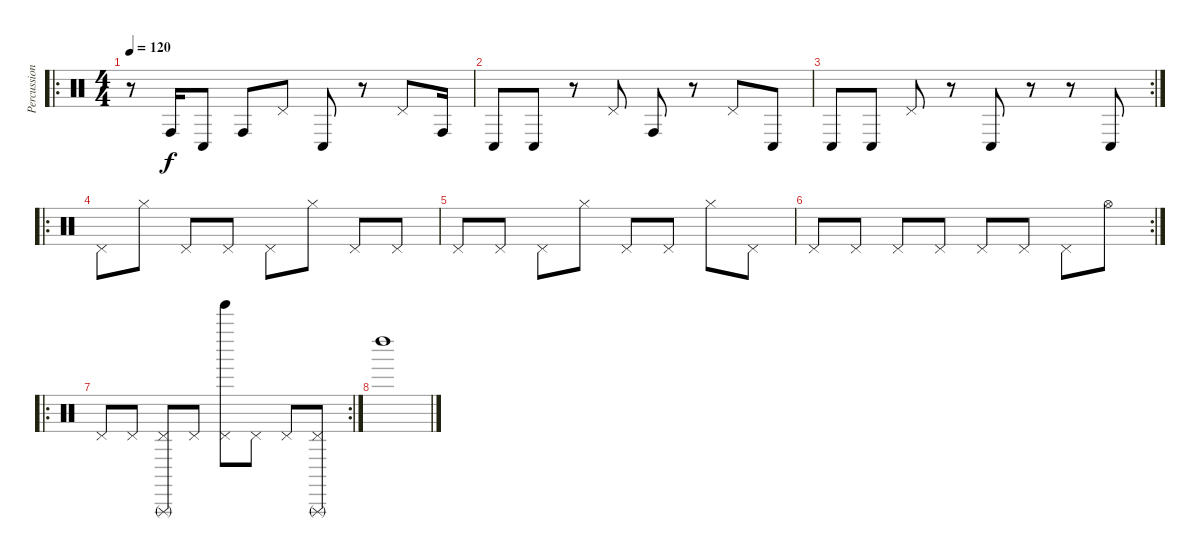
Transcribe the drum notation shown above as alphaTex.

\track ("Percussions" "Percussion") {instrument percussion}
\staff {score}
\articulation defaults
\ro
\ts (4 4)
\tempo 120
\clef neutral
\ks c
r.8{dy f} "Conga high (hit)".16 "Conga low (hit)".8 "Conga high (hit)".8 "Pedal Hi-Hat (hit)".8 "Conga low (hit)".8 r.8 "Pedal Hi-Hat (hit)".8 "Conga high (hit)".16 |
"Conga low (hit)".8 "Conga low (hit)".8 r.8 "Pedal Hi-Hat (hit)".8 "Conga high (hit)".8 r.8 "Pedal Hi-Hat (hit)".8 "Conga low (hit)".8 |
\rc 2 "Conga low (hit)".8 "Conga low (hit)".8 "Pedal Hi-Hat (hit)".8
r.8 "Conga low (hit)".8 r.8 r.8 "Conga low (hit)".8 |
\ro "Pedal Hi-Hat (hit)".8 "Hi-Hat (closed)".8 "Pedal Hi-Hat (hit)"{x}.8 "Pedal Hi-Hat (hit)".8 "Pedal Hi-Hat (hit)"{x}.8 "Hi-Hat (closed)".8 "Pedal Hi-Hat (hit)".8 "Pedal Hi-Hat (hit)"{x}.8
|
"Pedal Hi-Hat (hit)".8 "Pedal Hi-Hat (hit)".8 "Pedal Hi-Hat (hit)"{x}.8 "Hi-Hat (closed)".8 "Pedal Hi-Hat (hit)"{x}.8 "Pedal Hi-Hat (hit)".8 "Hi-Hat (closed)".8 "Pedal Hi-Hat (hit)"{x}.8 |
\rc 2 "Pedal Hi-Hat (hit)".8 "Pedal Hi-Hat (hit)".8 "Pedal Hi-Hat (hit)"{x}.8 "Pedal Hi-Hat (hit)".8 "Pedal Hi-Hat (hit)"{x}.8 "Pedal Hi-Hat (hit)".8 "Pedal Hi-Hat (hit)".8 "Hi-Hat (open)".8
|
\ro
\rc 2 "Pedal Hi-Hat (hit)".8 "Pedal Hi-Hat (hit)".8
("Triangle (rnute)" "Pedal Hi-Hat (hit)"{x}).8 "Pedal Hi-Hat (hit)".8 ("Tinkle Bell (hit)" "Pedal Hi-Hat (hit)"{x}).8 "Pedal Hi-Hat (hit)".8 "Pedal Hi-Hat (hit)".8 ("Triangle (rnute)" "Pedal Hi-Hat (hit)"{x}).8 |
"Left Maraca (hit)".1
